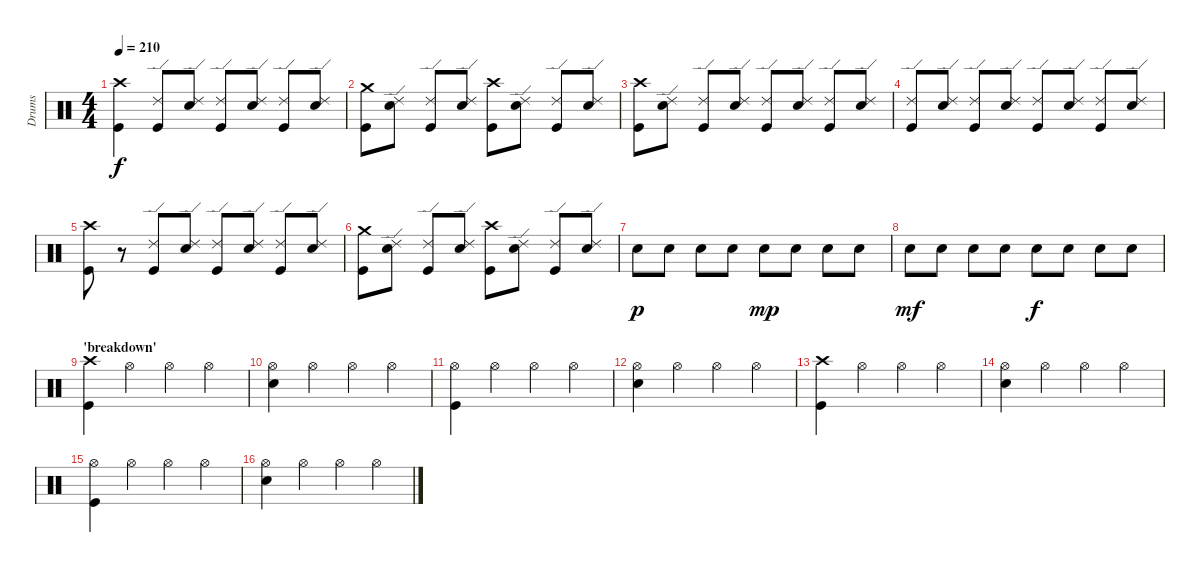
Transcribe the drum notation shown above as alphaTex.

\track ("Drums" "Drums") {instrument percussion}
\staff {score}
\articulation defaults
\ts (4 4)
\tempo 210
\clef neutral
\ks c
("Crash high (hit)" "Kick (hit)").4{dy f} ("Ride (edge) 2" "Kick (hit)").8 ("Ride (edge) 2" "Snare (hit) 2").8 ("Ride (edge) 2" "Kick (hit)").8 ("Ride (edge) 2" "Snare (hit) 2").8 ("Ride (edge) 2" "Kick (hit)").8 ("Ride (edge) 2" "Snare (hit) 2").8 |
("Crash medium (hit)" "Kick (hit)").8 ("Ride (edge) 2" "Snare (hit) 2").8 ("Ride (edge) 2" "Kick (hit)").8 ("Ride (edge) 2" "Snare (hit) 2").8 ("Crash high (hit)" "Kick (hit)").8 ("Ride (edge) 2" "Snare (hit) 2").8 ("Ride (edge) 2" "Kick (hit)").8 ("Ride (edge) 2" "Snare (hit) 2").8 |
("Crash high (hit)" "Kick (hit)").8 ("Ride (edge) 2" "Snare (hit) 2").8 ("Ride (edge) 2" "Kick (hit)").8 ("Ride (edge) 2" "Snare (hit) 2").8 ("Ride (edge) 2" "Kick (hit)").8 ("Ride (edge) 2" "Snare (hit) 2").8 ("Ride (edge) 2" "Kick (hit)").8 ("Ride (edge) 2" "Snare (hit) 2").8 |
("Ride (edge) 2" "Kick (hit)").8 ("Ride (edge) 2" "Snare (hit) 2").8 ("Ride (edge) 2" "Kick (hit)").8 ("Ride (edge) 2" "Snare (hit) 2").8 ("Ride (edge) 2" "Kick (hit)").8 ("Ride (edge) 2" "Snare (hit) 2").8 ("Ride (edge) 2" "Kick (hit)").8 ("Ride (edge) 2" "Snare (hit) 2").8 |
("Crash high (hit)" "Kick (hit)").8 r.8 ("Ride (edge) 2" "Kick (hit)").8 ("Ride (edge) 2" "Snare (hit) 2").8 ("Ride (edge) 2" "Kick (hit)").8 ("Ride (edge) 2" "Snare (hit) 2").8 ("Ride (edge) 2" "Kick (hit)").8 ("Ride (edge) 2" "Snare (hit) 2").8 |
("Crash medium (hit)" "Kick (hit)").8 ("Ride (edge) 2" "Snare (hit) 2").8 ("Ride (edge) 2" "Kick (hit)").8 ("Ride (edge) 2" "Snare (hit) 2").8 ("Crash high (hit)" "Kick (hit)").8 ("Ride (edge) 2" "Snare (hit) 2").8 ("Ride (edge) 2" "Kick (hit)").8 ("Ride (edge) 2" "Snare (hit) 2").8 |
"Snare (hit) 2".8{dy p} "Snare (hit) 2".8 "Snare (hit) 2".8 "Snare (hit) 2".8 "Snare (hit) 2".8{dy mp} "Snare (hit) 2".8 "Snare (hit) 2".8 "Snare (hit) 2".8 |
"Snare (hit) 2".8{dy mf} "Snare (hit) 2".8 "Snare (hit) 2".8 "Snare (hit) 2".8 "Snare (hit) 2".8{dy f} "Snare (hit) 2".8 "Snare (hit) 2".8 "Snare (hit) 2".8 |
\section ("" "'breakdown'")
("Crash high (hit)" "Kick (hit)").4 "Hi-Hat (open)".4 "Hi-Hat (open)".4 "Hi-Hat (open)".4 |
("Hi-Hat (open)" "Snare (hit) 2").4 "Hi-Hat (open)".4 "Hi-Hat (open)".4 "Hi-Hat (open)".4 |
("Hi-Hat (open)" "Kick (hit)").4 "Hi-Hat (open)".4 "Hi-Hat (open)".4 "Hi-Hat (open)".4 |
("Hi-Hat (open)" "Snare (hit) 2").4 "Hi-Hat (open)".4 "Hi-Hat (open)".4 "Hi-Hat (open)".4 |
("Crash high (hit)" "Kick (hit)").4 "Hi-Hat (open)".4 "Hi-Hat (open)".4 "Hi-Hat (open)".4 |
("Hi-Hat (open)" "Snare (hit) 2").4 "Hi-Hat (open)".4 "Hi-Hat (open)".4 "Hi-Hat (open)".4 |
("Hi-Hat (open)" "Kick (hit)").4 "Hi-Hat (open)".4 "Hi-Hat (open)".4 "Hi-Hat (open)".4 |
("Hi-Hat (open)" "Snare (hit) 2").4 "Hi-Hat (open)".4 "Hi-Hat (open)".4 "Hi-Hat (open)".4
